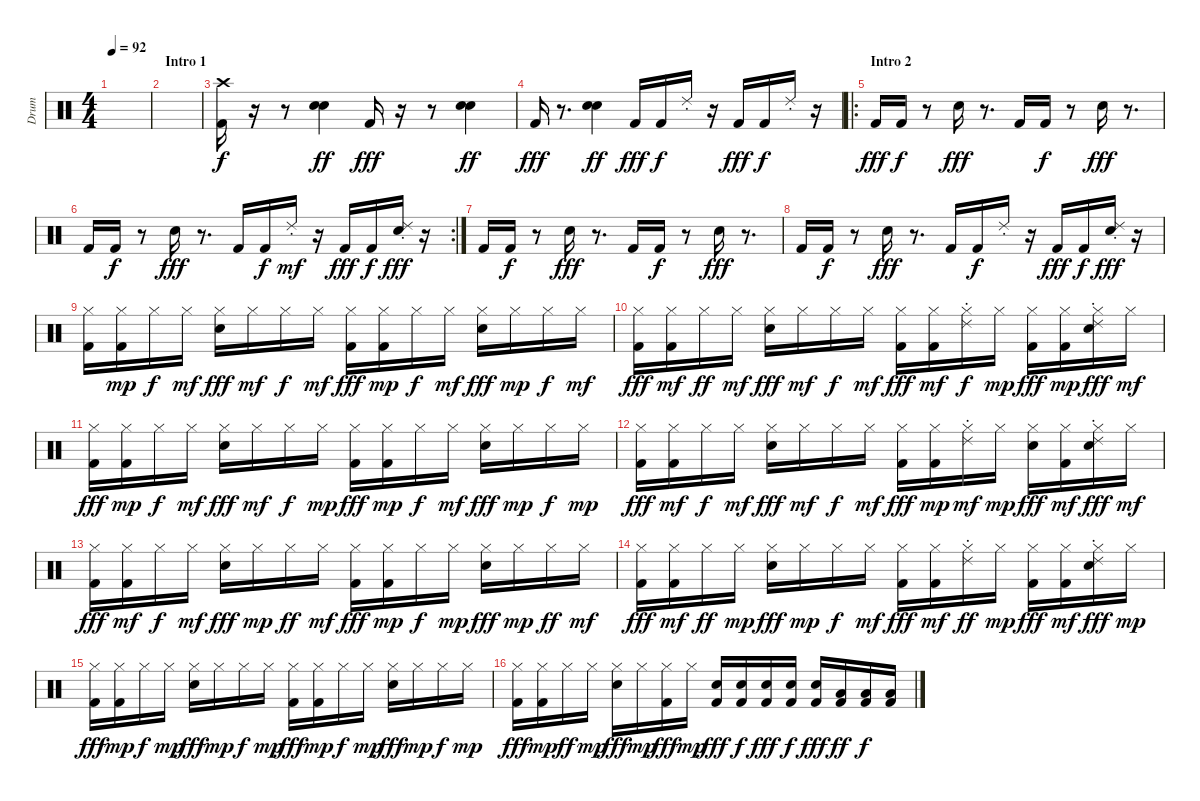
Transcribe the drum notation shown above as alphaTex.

\track ("Drum" "Drum") {instrument percussion}
\staff {score}
\articulation defaults
\ts (4 4)
\tempo 92
\clef neutral
\ks c
|
\section ("" "Intro 1")
|
("Crash high (hit)" "Kick (hit) 2").16 r.16 r.8 ("Electric Snare (hit)" "Electric Snare (hit)").4{dy ff} "Kick (hit) 2".16{dy fff} r.16 r.8 ("Electric Snare (hit)" "Electric Snare (hit)").4{dy ff} |
"Kick (hit) 2".16{dy fff} r.8{d} ("Electric Snare (hit)" "Electric Snare (hit)").4{dy ff} "Kick (hit) 2".16{dy fff} "Kick (hit) 2".16{dy f} "Ride (choke) 2".16 r.16 "Kick (hit) 2".16{dy fff} "Kick (hit) 2".16{dy f} "Ride (choke) 2".16 r.16 |
\ro
\section ("" "Intro 2")
"Kick (hit) 2".16{dy fff} "Kick (hit) 2".16{dy f} r.8 "Electric Snare (hit)".16{dy fff} r.8{d} "Kick (hit) 2".16 "Kick (hit) 2".16{dy f} r.8 "Electric Snare (hit)".16{dy fff} r.8{d} |
\rc 2 "Kick (hit) 2".16 "Kick (hit) 2".16{dy f}
r.8 "Electric Snare (hit)".16{dy fff} r.8{d} "Kick (hit) 2".16 "Kick (hit) 2".16{dy f} "Ride (choke) 2".16{dy mf} r.16 "Kick (hit) 2".16{dy fff} "Kick (hit) 2".16{dy f} ("Ride (choke) 2" "Electric Snare (hit)").16{dy fff} r.16 |
"Kick (hit) 2".16 "Kick (hit) 2".16{dy f} r.8 "Electric Snare (hit)".16{dy fff} r.8{d} "Kick (hit) 2".16 "Kick (hit) 2".16{dy f} r.8 "Electric Snare (hit)".16{dy fff} r.8{d} |
"Kick (hit) 2".16 "Kick (hit) 2".16{dy f} r.8 "Electric Snare (hit)".16{dy fff} r.8{d} "Kick (hit) 2".16 "Kick (hit) 2".16{dy f} "Ride (choke) 2".16 r.16 "Kick (hit) 2".16{dy fff} "Kick (hit) 2".16{dy f} ("Ride (choke) 2" "Electric Snare (hit)").16{dy fff} r.16 |
("Hi-Hat (closed)" "Kick (hit) 2").16 ("Hi-Hat (closed)" "Kick (hit) 2").16{dy mp} "Hi-Hat (closed)".16{dy f} "Hi-Hat (closed)".16{dy mf} ("Hi-Hat (closed)" "Electric Snare (hit)").16{dy fff} "Hi-Hat (closed)".16{dy mf} "Hi-Hat (closed)".16{dy f} "Hi-Hat (closed)".16{dy mf} ("Hi-Hat (closed)" "Kick (hit) 2").16{dy fff} ("Hi-Hat (closed)" "Kick (hit) 2").16{dy mp} "Hi-Hat (closed)".16{dy f} "Hi-Hat (closed)".16{dy mf} ("Hi-Hat (closed)" "Electric Snare (hit)").16{dy fff} "Hi-Hat (closed)".16{dy mp} "Hi-Hat (closed)".16{dy f} "Hi-Hat (closed)".16{dy mf} |
("Hi-Hat (closed)" "Kick (hit) 2").16{dy fff} ("Hi-Hat (closed)" "Kick (hit) 2").16{dy mf} "Hi-Hat (closed)".16{dy ff} "Hi-Hat (closed)".16{dy mf} ("Hi-Hat (closed)" "Electric Snare (hit)").16{dy fff} "Hi-Hat (closed)".16{dy mf} "Hi-Hat (closed)".16{dy f} "Hi-Hat (closed)".16{dy mf} ("Hi-Hat (closed)" "Kick (hit) 2").16{dy fff} ("Hi-Hat (closed)" "Kick (hit) 2").16{dy mf} ("Ride (choke) 2" "Hi-Hat (closed)").16{dy f} "Hi-Hat (closed)".16{dy mp} ("Hi-Hat (closed)" "Kick (hit) 2").16{dy fff} ("Hi-Hat (closed)" "Kick (hit) 2").16{dy mp} ("Ride (choke) 2" "Hi-Hat (closed)" "Electric Snare (hit)").16{dy fff} "Hi-Hat (closed)".16{dy mf} |
("Hi-Hat (closed)" "Kick (hit) 2").16{dy fff} ("Hi-Hat (closed)" "Kick (hit) 2").16{dy mp} "Hi-Hat (closed)".16{dy f} "Hi-Hat (closed)".16{dy mf} ("Hi-Hat (closed)" "Electric Snare (hit)").16{dy fff} "Hi-Hat (closed)".16{dy mf} "Hi-Hat (closed)".16{dy f} "Hi-Hat (closed)".16{dy mp} ("Hi-Hat (closed)" "Kick (hit) 2").16{dy fff} ("Hi-Hat (closed)" "Kick (hit) 2").16{dy mp} "Hi-Hat (closed)".16{dy f} "Hi-Hat (closed)".16{dy mf} ("Hi-Hat (closed)" "Electric Snare (hit)").16{dy fff} "Hi-Hat (closed)".16{dy mp} "Hi-Hat (closed)".16{dy f} "Hi-Hat (closed)".16{dy mp} |
("Hi-Hat (closed)" "Kick (hit) 2").16{dy fff} ("Hi-Hat (closed)" "Kick (hit) 2").16{dy mf} "Hi-Hat (closed)".16{dy f} "Hi-Hat (closed)".16{dy mf} ("Hi-Hat (closed)" "Electric Snare (hit)").16{dy fff} "Hi-Hat (closed)".16{dy mf} "Hi-Hat (closed)".16{dy f} "Hi-Hat (closed)".16{dy mf} ("Hi-Hat (closed)" "Kick (hit) 2").16{dy fff} ("Hi-Hat (closed)" "Kick (hit) 2").16{dy mp} ("Ride (choke) 2" "Hi-Hat (closed)").16{dy mf} "Hi-Hat (closed)".16{dy mp} ("Hi-Hat (closed)" "Electric Snare (hit)").16{dy fff} ("Hi-Hat (closed)" "Kick (hit) 2").16{dy mf} ("Ride (choke) 2" "Hi-Hat (closed)" "Electric Snare (hit)").16{dy fff} "Hi-Hat (closed)".16{dy mf} |
("Hi-Hat (closed)" "Kick (hit) 2").16{dy fff} ("Hi-Hat (closed)" "Kick (hit) 2").16{dy mf} "Hi-Hat (closed)".16{dy f} "Hi-Hat (closed)".16{dy mf} ("Hi-Hat (closed)" "Electric Snare (hit)").16{dy fff} "Hi-Hat (closed)".16{dy mp} "Hi-Hat (closed)".16{dy ff} "Hi-Hat (closed)".16{dy mf} ("Hi-Hat (closed)" "Kick (hit) 2").16{dy fff} ("Hi-Hat (closed)" "Kick (hit) 2").16{dy mp} "Hi-Hat (closed)".16{dy f} "Hi-Hat (closed)".16{dy mp} ("Hi-Hat (closed)" "Electric Snare (hit)").16{dy fff} "Hi-Hat (closed)".16{dy mp} "Hi-Hat (closed)".16{dy ff} "Hi-Hat (closed)".16{dy mf} |
("Hi-Hat (closed)" "Kick (hit) 2").16{dy fff} ("Hi-Hat (closed)" "Kick (hit) 2").16{dy mf} "Hi-Hat (closed)".16{dy ff} "Hi-Hat (closed)".16{dy mp} ("Hi-Hat (closed)" "Electric Snare (hit)").16{dy fff} "Hi-Hat (closed)".16{dy mp} "Hi-Hat (closed)".16{dy f} "Hi-Hat (closed)".16{dy mf} ("Hi-Hat (closed)" "Kick (hit) 2").16{dy fff} ("Hi-Hat (closed)" "Kick (hit) 2").16{dy mf} ("Ride (choke) 2" "Hi-Hat (closed)").16{dy ff} "Hi-Hat (closed)".16{dy mp} ("Hi-Hat (closed)" "Kick (hit) 2").16{dy fff} ("Hi-Hat (closed)" "Kick (hit) 2").16{dy mf} ("Ride (choke) 2" "Hi-Hat (closed)" "Electric Snare (hit)").16{dy fff} "Hi-Hat (closed)".16{dy mp} |
("Hi-Hat (closed)" "Kick (hit) 2").16{dy fff} ("Hi-Hat (closed)" "Kick (hit) 2").16{dy mp} "Hi-Hat (closed)".16{dy f} "Hi-Hat (closed)".16{dy mp} ("Hi-Hat (closed)" "Electric Snare (hit)").16{dy fff} "Hi-Hat (closed)".16{dy mp} "Hi-Hat (closed)".16{dy f} "Hi-Hat (closed)".16{dy mp} ("Hi-Hat (closed)" "Kick (hit) 2").16{dy fff} ("Hi-Hat (closed)" "Kick (hit) 2").16{dy mp} "Hi-Hat (closed)".16{dy f} "Hi-Hat (closed)".16{dy mp} ("Hi-Hat (closed)" "Electric Snare (hit)").16{dy fff} "Hi-Hat (closed)".16{dy mp} "Hi-Hat (closed)".16{dy f} "Hi-Hat (closed)".16{dy mp} |
("Hi-Hat (closed)" "Kick (hit) 2").16{dy fff} ("Hi-Hat (closed)" "Kick (hit) 2").16{dy mp} "Hi-Hat (closed)".16{dy ff} "Hi-Hat (closed)".16{dy mp} ("Hi-Hat (closed)" "Electric Snare (hit)").16{dy fff} "Hi-Hat (closed)".16{dy mp} ("Hi-Hat (closed)" "Kick (hit) 2").16{dy fff} "Hi-Hat (closed)".16{dy mp} ("Electric Snare (hit)" "Kick (hit) 2").16{dy fff} ("Electric Snare (hit)" "Kick (hit) 2").16{dy f} ("Electric Snare (hit)" "Kick (hit) 2").16{dy fff} ("Electric Snare (hit)" "Kick (hit) 2").16{dy f} ("Electric Snare (hit)" "Kick (hit) 2").16{dy fff} ("Low Tom (hit)" "Kick (hit) 2").16{dy ff} ("Low Tom (hit)" "Kick (hit) 2").16{dy f} ("Low Floor Tom (hit)" "Kick (hit) 2").16
